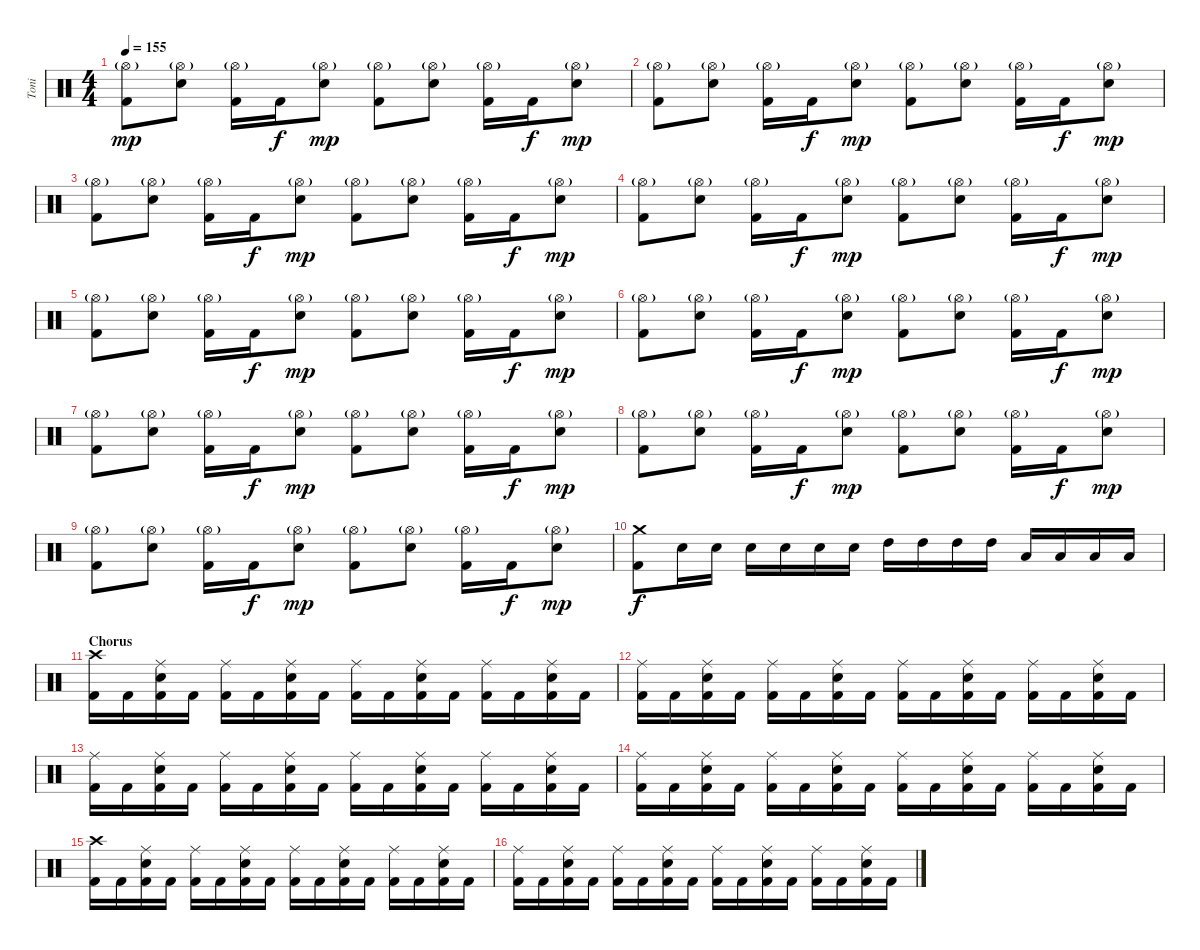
\track ("Toni" "Toni") {instrument percussion}
\staff {score}
\articulation defaults
\ts (4 4)
\tempo 155
\clef neutral
\ks c
("Hi-Hat (open)"{g} "Kick (hit) 2").8{dy mp} ("Hi-Hat (open)"{g} "Electric Snare (hit)").8 ("Hi-Hat (open)"{g} "Kick (hit) 2").16 "Kick (hit) 2".16{dy f} ("Hi-Hat (open)"{g} "Electric Snare (hit)").8{dy mp} ("Hi-Hat (open)"{g} "Kick (hit) 2").8 ("Hi-Hat (open)"{g} "Electric Snare (hit)").8 ("Hi-Hat (open)"{g} "Kick (hit) 2").16 "Kick (hit) 2".16{dy f} ("Hi-Hat (open)"{g} "Electric Snare (hit)").8{dy mp} |
("Hi-Hat (open)"{g} "Kick (hit) 2").8 ("Hi-Hat (open)"{g} "Electric Snare (hit)").8 ("Hi-Hat (open)"{g} "Kick (hit) 2").16 "Kick (hit) 2".16{dy f} ("Hi-Hat (open)"{g} "Electric Snare (hit)").8{dy mp} ("Hi-Hat (open)"{g} "Kick (hit) 2").8 ("Hi-Hat (open)"{g} "Electric Snare (hit)").8 ("Hi-Hat (open)"{g} "Kick (hit) 2").16 "Kick (hit) 2".16{dy f} ("Hi-Hat (open)"{g} "Electric Snare (hit)").8{dy mp} |
("Hi-Hat (open)"{g} "Kick (hit) 2").8 ("Hi-Hat (open)"{g} "Electric Snare (hit)").8 ("Hi-Hat (open)"{g} "Kick (hit) 2").16 "Kick (hit) 2".16{dy f} ("Hi-Hat (open)"{g} "Electric Snare (hit)").8{dy mp} ("Hi-Hat (open)"{g} "Kick (hit) 2").8 ("Hi-Hat (open)"{g} "Electric Snare (hit)").8 ("Hi-Hat (open)"{g} "Kick (hit) 2").16 "Kick (hit) 2".16{dy f} ("Hi-Hat (open)"{g} "Electric Snare (hit)").8{dy mp} |
("Hi-Hat (open)"{g} "Kick (hit) 2").8 ("Hi-Hat (open)"{g} "Electric Snare (hit)").8 ("Hi-Hat (open)"{g} "Kick (hit) 2").16 "Kick (hit) 2".16{dy f} ("Hi-Hat (open)"{g} "Electric Snare (hit)").8{dy mp} ("Hi-Hat (open)"{g} "Kick (hit) 2").8 ("Hi-Hat (open)"{g} "Electric Snare (hit)").8 ("Hi-Hat (open)"{g} "Kick (hit) 2").16 "Kick (hit) 2".16{dy f} ("Hi-Hat (open)"{g} "Electric Snare (hit)").8{dy mp} |
("Hi-Hat (open)"{g} "Kick (hit) 2").8 ("Hi-Hat (open)"{g} "Electric Snare (hit)").8 ("Hi-Hat (open)"{g} "Kick (hit) 2").16 "Kick (hit) 2".16{dy f} ("Hi-Hat (open)"{g} "Electric Snare (hit)").8{dy mp} ("Hi-Hat (open)"{g} "Kick (hit) 2").8 ("Hi-Hat (open)"{g} "Electric Snare (hit)").8 ("Hi-Hat (open)"{g} "Kick (hit) 2").16 "Kick (hit) 2".16{dy f} ("Hi-Hat (open)"{g} "Electric Snare (hit)").8{dy mp} |
("Hi-Hat (open)"{g} "Kick (hit) 2").8 ("Hi-Hat (open)"{g} "Electric Snare (hit)").8 ("Hi-Hat (open)"{g} "Kick (hit) 2").16 "Kick (hit) 2".16{dy f} ("Hi-Hat (open)"{g} "Electric Snare (hit)").8{dy mp} ("Hi-Hat (open)"{g} "Kick (hit) 2").8 ("Hi-Hat (open)"{g} "Electric Snare (hit)").8 ("Hi-Hat (open)"{g} "Kick (hit) 2").16 "Kick (hit) 2".16{dy f} ("Hi-Hat (open)"{g} "Electric Snare (hit)").8{dy mp} |
("Hi-Hat (open)"{g} "Kick (hit) 2").8 ("Hi-Hat (open)"{g} "Electric Snare (hit)").8 ("Hi-Hat (open)"{g} "Kick (hit) 2").16 "Kick (hit) 2".16{dy f} ("Hi-Hat (open)"{g} "Electric Snare (hit)").8{dy mp} ("Hi-Hat (open)"{g} "Kick (hit) 2").8 ("Hi-Hat (open)"{g} "Electric Snare (hit)").8 ("Hi-Hat (open)"{g} "Kick (hit) 2").16 "Kick (hit) 2".16{dy f} ("Hi-Hat (open)"{g} "Electric Snare (hit)").8{dy mp} |
("Hi-Hat (open)"{g} "Kick (hit) 2").8 ("Hi-Hat (open)"{g} "Electric Snare (hit)").8 ("Hi-Hat (open)"{g} "Kick (hit) 2").16 "Kick (hit) 2".16{dy f} ("Hi-Hat (open)"{g} "Electric Snare (hit)").8{dy mp} ("Hi-Hat (open)"{g} "Kick (hit) 2").8 ("Hi-Hat (open)"{g} "Electric Snare (hit)").8 ("Hi-Hat (open)"{g} "Kick (hit) 2").16 "Kick (hit) 2".16{dy f} ("Hi-Hat (open)"{g} "Electric Snare (hit)").8{dy mp} |
("Hi-Hat (open)"{g} "Kick (hit) 2").8 ("Hi-Hat (open)"{g} "Electric Snare (hit)").8 ("Hi-Hat (open)"{g} "Kick (hit) 2").16 "Kick (hit) 2".16{dy f} ("Hi-Hat (open)"{g} "Electric Snare (hit)").8{dy mp} ("Hi-Hat (open)"{g} "Kick (hit) 2").8 ("Hi-Hat (open)"{g} "Electric Snare (hit)").8 ("Hi-Hat (open)"{g} "Kick (hit) 2").16 "Kick (hit) 2".16{dy f} ("Hi-Hat (open)"{g} "Electric Snare (hit)").8{dy mp} |
("Crash medium (hit)" "Kick (hit) 2").8{dy f} "Electric Snare (hit)".16 "Electric Snare (hit)".16 "Electric Snare (hit)".16 "Electric Snare (hit)".16 "Electric Snare (hit)".16 "Electric Snare (hit)".16 "High Tom (hit)".16 "High Tom (hit)".16 "High Tom (hit)".16 "High Tom (hit)".16 "Low Tom (hit)".16 "Low Tom (hit)".16 "Low Tom (hit)".16 "Low Tom (hit)".16 |
\section ("" "Chorus")
("Crash high (hit)" "Kick (hit) 2").16 "Kick (hit) 2".16 ("Ride (middle)" "Electric Snare (hit)" "Kick (hit) 2").16 "Kick (hit) 2".16 ("Ride (middle)" "Kick (hit) 2").16 "Kick (hit) 2".16 ("Ride (middle)" "Electric Snare (hit)" "Kick (hit) 2").16 "Kick (hit) 2".16 ("Ride (middle)" "Kick (hit) 2").16 "Kick (hit) 2".16 ("Ride (middle)" "Electric Snare (hit)" "Kick (hit) 2").16 "Kick (hit) 2".16 ("Ride (middle)" "Kick (hit) 2").16 "Kick (hit) 2".16 ("Ride (middle)" "Electric Snare (hit)" "Kick (hit) 2").16 "Kick (hit) 2".16 |
("Ride (middle)" "Kick (hit) 2").16 "Kick (hit) 2".16 ("Ride (middle)" "Electric Snare (hit)" "Kick (hit) 2").16 "Kick (hit) 2".16 ("Ride (middle)" "Kick (hit) 2").16 "Kick (hit) 2".16 ("Ride (middle)" "Electric Snare (hit)" "Kick (hit) 2").16 "Kick (hit) 2".16 ("Ride (middle)" "Kick (hit) 2").16 "Kick (hit) 2".16 ("Ride (middle)" "Electric Snare (hit)" "Kick (hit) 2").16 "Kick (hit) 2".16 ("Ride (middle)" "Kick (hit) 2").16 "Kick (hit) 2".16 ("Ride (middle)" "Electric Snare (hit)" "Kick (hit) 2").16 "Kick (hit) 2".16 |
("Ride (middle)" "Kick (hit) 2").16 "Kick (hit) 2".16 ("Ride (middle)" "Electric Snare (hit)" "Kick (hit) 2").16 "Kick (hit) 2".16 ("Ride (middle)" "Kick (hit) 2").16 "Kick (hit) 2".16 ("Ride (middle)" "Electric Snare (hit)" "Kick (hit) 2").16 "Kick (hit) 2".16 ("Ride (middle)" "Kick (hit) 2").16 "Kick (hit) 2".16 ("Ride (middle)" "Electric Snare (hit)" "Kick (hit) 2").16 "Kick (hit) 2".16 ("Ride (middle)" "Kick (hit) 2").16 "Kick (hit) 2".16 ("Ride (middle)" "Electric Snare (hit)" "Kick (hit) 2").16 "Kick (hit) 2".16 |
("Ride (middle)" "Kick (hit) 2").16 "Kick (hit) 2".16 ("Ride (middle)" "Electric Snare (hit)" "Kick (hit) 2").16 "Kick (hit) 2".16 ("Ride (middle)" "Kick (hit) 2").16 "Kick (hit) 2".16 ("Ride (middle)" "Electric Snare (hit)" "Kick (hit) 2").16 "Kick (hit) 2".16 ("Ride (middle)" "Kick (hit) 2").16 "Kick (hit) 2".16 ("Ride (middle)" "Electric Snare (hit)" "Kick (hit) 2").16 "Kick (hit) 2".16 ("Ride (middle)" "Kick (hit) 2").16 "Kick (hit) 2".16 ("Ride (middle)" "Electric Snare (hit)" "Kick (hit) 2").16 "Kick (hit) 2".16 |
("Crash high (hit)" "Kick (hit) 2").16 "Kick (hit) 2".16 ("Ride (middle)" "Electric Snare (hit)" "Kick (hit) 2").16 "Kick (hit) 2".16 ("Ride (middle)" "Kick (hit) 2").16 "Kick (hit) 2".16 ("Ride (middle)" "Electric Snare (hit)" "Kick (hit) 2").16 "Kick (hit) 2".16 ("Ride (middle)" "Kick (hit) 2").16 "Kick (hit) 2".16 ("Ride (middle)" "Electric Snare (hit)" "Kick (hit) 2").16 "Kick (hit) 2".16 ("Ride (middle)" "Kick (hit) 2").16 "Kick (hit) 2".16 ("Ride (middle)" "Electric Snare (hit)" "Kick (hit) 2").16 "Kick (hit) 2".16 |
("Ride (middle)" "Kick (hit) 2").16 "Kick (hit) 2".16 ("Ride (middle)" "Electric Snare (hit)" "Kick (hit) 2").16 "Kick (hit) 2".16 ("Ride (middle)" "Kick (hit) 2").16 "Kick (hit) 2".16 ("Ride (middle)" "Electric Snare (hit)" "Kick (hit) 2").16 "Kick (hit) 2".16 ("Ride (middle)" "Kick (hit) 2").16 "Kick (hit) 2".16 ("Ride (middle)" "Electric Snare (hit)" "Kick (hit) 2").16 "Kick (hit) 2".16 ("Ride (middle)" "Kick (hit) 2").16 "Kick (hit) 2".16 ("Ride (middle)" "Electric Snare (hit)" "Kick (hit) 2").16 "Kick (hit) 2".16
